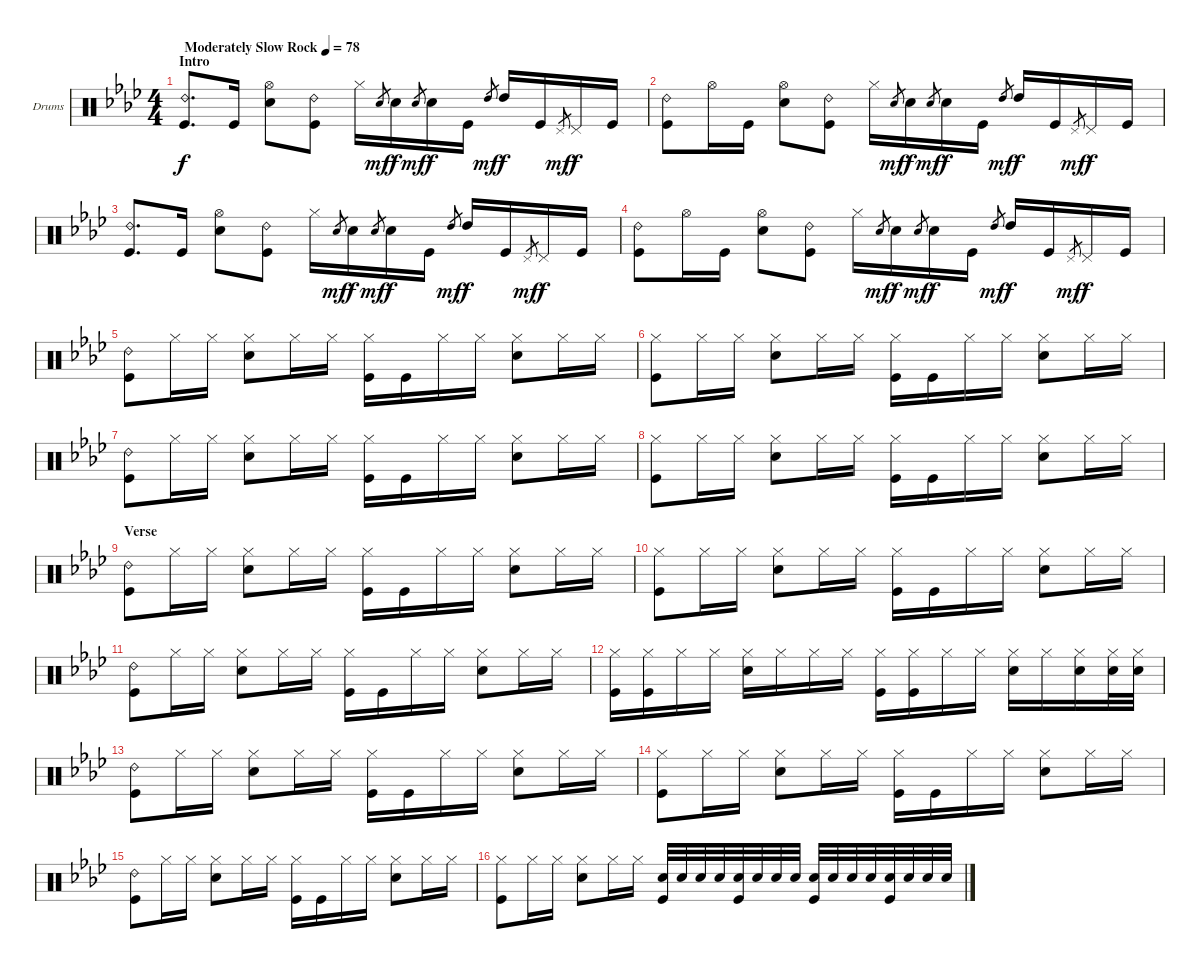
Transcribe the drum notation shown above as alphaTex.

\defaultSystemsLayout 4
\bracketExtendMode groupsimilarinstruments
\firstSystemTrackNameOrientation horizontal
\otherSystemsTrackNameOrientation horizontal
\track ("Drumkit" "Drums") {instrument percussion}
\staff {score}
\articulation defaults
\ts (4 4)
\section ("" "Intro")
\tempo (78 "Moderately Slow Rock")
\clef neutral
\ks ab
("Ride (bell) 2" "Kick (hit)").8{d dy f} "Kick (hit)".16 ("Hi-Hat (open)" "Snare (hit) 2").8 ("Ride (bell) 2" "Kick (hit)").8 "Hi-Hat (closed)".16 "Snare (hit) 2".8{gr dy mf} "Snare (hit) 2".16{dy f} "Snare (hit) 2".8{gr dy mf} "Snare (hit) 2".16{dy f} "Kick (hit)".16 "High Tom (hit)".8{gr dy mf} "High Tom (hit)".16{dy f} "Kick (hit)".16 "Pedal Hi-Hat (hit)".8{gr dy mf} "Pedal Hi-Hat (hit)".16{dy f} "Kick (hit)".16 |
("Ride (bell) 2" "Kick (hit)").8 "Hi-Hat (open)".16 "Kick (hit)".16 ("Hi-Hat (open)" "Snare (hit) 2").8 ("Ride (bell) 2" "Kick (hit)").8 "Hi-Hat (closed)".16 "Snare (hit) 2".8{gr dy mf} "Snare (hit) 2".16{dy f} "Snare (hit) 2".8{gr dy mf} "Snare (hit) 2".16{dy f} "Kick (hit)".16 "High Tom (hit)".8{gr dy mf} "High Tom (hit)".16{dy f} "Kick (hit)".16 "Pedal Hi-Hat (hit)".8{gr dy mf} "Pedal Hi-Hat (hit)".16{dy f} "Kick (hit)".16 |
("Ride (bell) 2" "Kick (hit)").8{d} "Kick (hit)".16 ("Hi-Hat (open)" "Snare (hit) 2").8 ("Ride (bell) 2" "Kick (hit)").8 "Hi-Hat (closed)".16 "Snare (hit) 2".8{gr dy mf} "Snare (hit) 2".16{dy f} "Snare (hit) 2".8{gr dy mf} "Snare (hit) 2".16{dy f} "Kick (hit)".16 "High Tom (hit)".8{gr dy mf} "High Tom (hit)".16{dy f} "Kick (hit)".16 "Pedal Hi-Hat (hit)".8{gr dy mf} "Pedal Hi-Hat (hit)".16{dy f} "Kick (hit)".16 |
("Ride (bell) 2" "Kick (hit)").8 "Hi-Hat (open)".16 "Kick (hit)".16 ("Hi-Hat (open)" "Snare (hit) 2").8 ("Ride (bell) 2" "Kick (hit)").8 "Hi-Hat (closed)".16 "Snare (hit) 2".8{gr dy mf} "Snare (hit) 2".16{dy f} "Snare (hit) 2".8{gr dy mf} "Snare (hit) 2".16{dy f} "Kick (hit)".16 "High Tom (hit)".8{gr dy mf} "High Tom (hit)".16{dy f} "Kick (hit)".16 "Pedal Hi-Hat (hit)".8{gr dy mf} "Pedal Hi-Hat (hit)".16{dy f} "Kick (hit)".16 |
("Ride (bell) 2" "Kick (hit)").8 "Hi-Hat (closed)".16 "Hi-Hat (closed)".16 ("Hi-Hat (closed)" "Snare (hit) 2").8 "Hi-Hat (closed)".16 "Hi-Hat (closed)".16 ("Hi-Hat (closed)" "Kick (hit)").16 "Kick (hit)".16 "Hi-Hat (closed)".16 "Hi-Hat (closed)".16 ("Hi-Hat (closed)" "Snare (hit) 2").8 "Hi-Hat (closed)".16 "Hi-Hat (closed)".16 |
("Hi-Hat (closed)" "Kick (hit)").8 "Hi-Hat (closed)".16 "Hi-Hat (closed)".16 ("Hi-Hat (closed)" "Snare (hit) 2").8 "Hi-Hat (closed)".16 "Hi-Hat (closed)".16 ("Hi-Hat (closed)" "Kick (hit)").16 "Kick (hit)".16 "Hi-Hat (closed)".16 "Hi-Hat (closed)".16 ("Hi-Hat (closed)" "Snare (hit) 2").8 "Hi-Hat (closed)".16 "Hi-Hat (closed)".16 |
("Ride (bell) 2" "Kick (hit)").8 "Hi-Hat (closed)".16 "Hi-Hat (closed)".16 ("Hi-Hat (closed)" "Snare (hit) 2").8 "Hi-Hat (closed)".16 "Hi-Hat (closed)".16 ("Hi-Hat (closed)" "Kick (hit)").16 "Kick (hit)".16 "Hi-Hat (closed)".16 "Hi-Hat (closed)".16 ("Hi-Hat (closed)" "Snare (hit) 2").8 "Hi-Hat (closed)".16 "Hi-Hat (closed)".16 |
("Hi-Hat (closed)" "Kick (hit)").8 "Hi-Hat (closed)".16 "Hi-Hat (closed)".16 ("Hi-Hat (closed)" "Snare (hit) 2").8 "Hi-Hat (closed)".16 "Hi-Hat (closed)".16 ("Hi-Hat (closed)" "Kick (hit)").16 "Kick (hit)".16 "Hi-Hat (closed)".16 "Hi-Hat (closed)".16 ("Hi-Hat (closed)" "Snare (hit) 2").8 "Hi-Hat (closed)".16 "Hi-Hat (closed)".16 |
\section ("" "Verse")
("Ride (bell) 2" "Kick (hit)").8 "Hi-Hat (closed)".16 "Hi-Hat (closed)".16 ("Hi-Hat (closed)" "Snare (hit) 2").8 "Hi-Hat (closed)".16 "Hi-Hat (closed)".16 ("Hi-Hat (closed)" "Kick (hit)").16 "Kick (hit)".16 "Hi-Hat (closed)".16 "Hi-Hat (closed)".16 ("Hi-Hat (closed)" "Snare (hit) 2").8 "Hi-Hat (closed)".16 "Hi-Hat (closed)".16 |
("Hi-Hat (closed)" "Kick (hit)").8 "Hi-Hat (closed)".16 "Hi-Hat (closed)".16 ("Hi-Hat (closed)" "Snare (hit) 2").8 "Hi-Hat (closed)".16 "Hi-Hat (closed)".16 ("Hi-Hat (closed)" "Kick (hit)").16 "Kick (hit)".16 "Hi-Hat (closed)".16 "Hi-Hat (closed)".16 ("Hi-Hat (closed)" "Snare (hit) 2").8 "Hi-Hat (closed)".16 "Hi-Hat (closed)".16 |
("Ride (bell) 2" "Kick (hit)").8 "Hi-Hat (closed)".16 "Hi-Hat (closed)".16 ("Hi-Hat (closed)" "Snare (hit) 2").8 "Hi-Hat (closed)".16 "Hi-Hat (closed)".16 ("Hi-Hat (closed)" "Kick (hit)").16 "Kick (hit)".16 "Hi-Hat (closed)".16 "Hi-Hat (closed)".16 ("Hi-Hat (closed)" "Snare (hit) 2").8 "Hi-Hat (closed)".16 "Hi-Hat (closed)".16 |
("Hi-Hat (closed)" "Kick (hit)").16 ("Hi-Hat (closed)" "Kick (hit)").16 "Hi-Hat (closed)".16 "Hi-Hat (closed)".16 ("Hi-Hat (closed)" "Snare (hit) 2").16 "Hi-Hat (closed)".16 "Hi-Hat (closed)".16 "Hi-Hat (closed)".16 ("Hi-Hat (closed)" "Kick (hit)").16 ("Hi-Hat (closed)" "Kick (hit)").16 "Hi-Hat (closed)".16 "Hi-Hat (closed)".16 ("Hi-Hat (closed)" "Snare (hit) 2").16 "Hi-Hat (closed)".16 ("Hi-Hat (closed)" "Snare (hit) 2").16 ("Hi-Hat (closed)" "Snare (hit) 2").32 ("Hi-Hat (closed)" "Snare (hit) 2").32 |
("Ride (bell) 2" "Kick (hit)").8 "Hi-Hat (closed)".16 "Hi-Hat (closed)".16 ("Hi-Hat (closed)" "Snare (hit) 2").8 "Hi-Hat (closed)".16 "Hi-Hat (closed)".16 ("Hi-Hat (closed)" "Kick (hit)").16 "Kick (hit)".16 "Hi-Hat (closed)".16 "Hi-Hat (closed)".16 ("Hi-Hat (closed)" "Snare (hit) 2").8 "Hi-Hat (closed)".16 "Hi-Hat (closed)".16 |
("Hi-Hat (closed)" "Kick (hit)").8 "Hi-Hat (closed)".16 "Hi-Hat (closed)".16 ("Hi-Hat (closed)" "Snare (hit) 2").8 "Hi-Hat (closed)".16 "Hi-Hat (closed)".16 ("Hi-Hat (closed)" "Kick (hit)").16 "Kick (hit)".16 "Hi-Hat (closed)".16 "Hi-Hat (closed)".16 ("Hi-Hat (closed)" "Snare (hit) 2").8 "Hi-Hat (closed)".16 "Hi-Hat (closed)".16 |
("Ride (bell) 2" "Kick (hit)").8 "Hi-Hat (closed)".16 "Hi-Hat (closed)".16 ("Hi-Hat (closed)" "Snare (hit) 2").8 "Hi-Hat (closed)".16 "Hi-Hat (closed)".16 ("Hi-Hat (closed)" "Kick (hit)").16 "Kick (hit)".16 "Hi-Hat (closed)".16 "Hi-Hat (closed)".16 ("Hi-Hat (closed)" "Snare (hit) 2").8 "Hi-Hat (closed)".16 "Hi-Hat (closed)".16 |
("Hi-Hat (closed)" "Kick (hit)").8 "Hi-Hat (closed)".16 "Hi-Hat (closed)".16 ("Hi-Hat (closed)" "Snare (hit) 2").8 "Hi-Hat (closed)".16 "Hi-Hat (closed)".16 ("Snare (hit) 2" "Kick (hit)").32 "Snare (hit) 2".32 "Snare (hit) 2".32 "Snare (hit) 2".32 ("Snare (hit) 2" "Kick (hit)").32 "Snare (hit) 2".32 "Snare (hit) 2".32 "Snare (hit) 2".32 ("Snare (hit) 2" "Kick (hit)").32 "Snare (hit) 2".32 "Snare (hit) 2".32 "Snare (hit) 2".32 ("Snare (hit) 2" "Kick (hit)").32 "Snare (hit) 2".32 "Snare (hit) 2".32 "Snare (hit) 2".32
